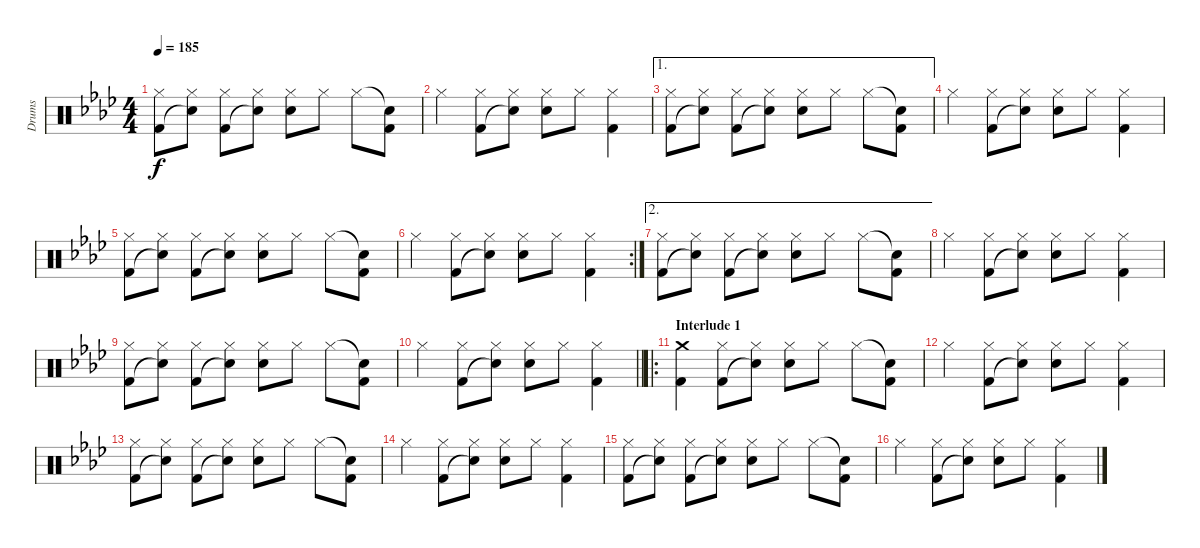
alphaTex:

\track ("Drums" "Drums") {instrument percussion}
\staff {score}
\articulation defaults
\ts (4 4)
\tempo 185
\clef neutral
\ks fminor
("Hi-Hat (closed)" "Kick (hit) 2").8{dy f} ("Hi-Hat (closed)" "Snare (hit)"{t}).8 ("Hi-Hat (closed)" "Kick (hit) 2").8 ("Hi-Hat (closed)" "Snare (hit)"{t}).8 ("Hi-Hat (closed)" "Electric Snare (hit)").8 "Hi-Hat (closed)".8 "Hi-Hat (closed)".8 ("Snare (hit)"{t} "Kick (hit) 2").8 |
"Hi-Hat (closed)".4 ("Hi-Hat (closed)" "Kick (hit) 2").8 ("Hi-Hat (closed)" "Snare (hit)"{t}).8 ("Hi-Hat (closed)" "Electric Snare (hit)").8 "Hi-Hat (closed)".8 ("Hi-Hat (closed)" "Kick (hit) 2").4 |
\ae 1
("Hi-Hat (closed)" "Kick (hit) 2").8 ("Hi-Hat (closed)" "Snare (hit)"{t}).8 ("Hi-Hat (closed)" "Kick (hit) 2").8 ("Hi-Hat (closed)" "Snare (hit)"{t}).8 ("Hi-Hat (closed)" "Electric Snare (hit)").8 "Hi-Hat (closed)".8 "Hi-Hat (closed)".8 ("Snare (hit)"{t} "Kick (hit) 2").8 |
"Hi-Hat (closed)".4 ("Hi-Hat (closed)" "Kick (hit) 2").8 ("Hi-Hat (closed)" "Snare (hit)"{t}).8 ("Hi-Hat (closed)" "Electric Snare (hit)").8 "Hi-Hat (closed)".8 ("Hi-Hat (closed)" "Kick (hit) 2").4 |
("Hi-Hat (closed)" "Kick (hit) 2").8 ("Hi-Hat (closed)" "Snare (hit)"{t}).8 ("Hi-Hat (closed)" "Kick (hit) 2").8 ("Hi-Hat (closed)" "Snare (hit)"{t}).8 ("Hi-Hat (closed)" "Electric Snare (hit)").8 "Hi-Hat (closed)".8 "Hi-Hat (closed)".8 ("Snare (hit)"{t} "Kick (hit) 2").8 |
\rc 2 "Hi-Hat (closed)".4
("Hi-Hat (closed)" "Kick (hit) 2").8 ("Hi-Hat (closed)" "Snare (hit)"{t}).8 ("Hi-Hat (closed)" "Electric Snare (hit)").8 "Hi-Hat (closed)".8 ("Hi-Hat (closed)" "Kick (hit) 2").4 |
\ae 2
("Hi-Hat (closed)" "Kick (hit) 2").8 ("Hi-Hat (closed)" "Snare (hit)"{t}).8 ("Hi-Hat (closed)" "Kick (hit) 2").8 ("Hi-Hat (closed)" "Snare (hit)"{t}).8 ("Hi-Hat (closed)" "Electric Snare (hit)").8 "Hi-Hat (closed)".8 "Hi-Hat (closed)".8 ("Snare (hit)"{t} "Kick (hit) 2").8 |
"Hi-Hat (closed)".4 ("Hi-Hat (closed)" "Kick (hit) 2").8 ("Hi-Hat (closed)" "Snare (hit)"{t}).8 ("Hi-Hat (closed)" "Electric Snare (hit)").8 "Hi-Hat (closed)".8 ("Hi-Hat (closed)" "Kick (hit) 2").4 |
("Hi-Hat (closed)" "Kick (hit) 2").8 ("Hi-Hat (closed)" "Snare (hit)"{t}).8 ("Hi-Hat (closed)" "Kick (hit) 2").8 ("Hi-Hat (closed)" "Snare (hit)"{t}).8 ("Hi-Hat (closed)" "Electric Snare (hit)").8 "Hi-Hat (closed)".8 "Hi-Hat (closed)".8 ("Snare (hit)"{t} "Kick (hit) 2").8 |
\barLineRight lightlight "Hi-Hat (closed)".4
("Hi-Hat (closed)" "Kick (hit) 2").8 ("Hi-Hat (closed)" "Snare (hit)"{t}).8 ("Hi-Hat (closed)" "Electric Snare (hit)").8 "Hi-Hat (closed)".8 ("Hi-Hat (closed)" "Kick (hit) 2").4 |
\ro
\section ("" "Interlude 1")
("Crash medium (hit)" "Kick (hit) 2").4 ("Hi-Hat (closed)" "Kick (hit) 2").8 ("Hi-Hat (closed)" "Snare (hit)"{t}).8 ("Hi-Hat (closed)" "Electric Snare (hit)").8 "Hi-Hat (closed)".8 "Hi-Hat (closed)".8 ("Snare (hit)"{t} "Kick (hit) 2").8 |
"Hi-Hat (closed)".4 ("Hi-Hat (closed)" "Kick (hit) 2").8 ("Hi-Hat (closed)" "Snare (hit)"{t}).8 ("Hi-Hat (closed)" "Electric Snare (hit)").8 "Hi-Hat (closed)".8 ("Hi-Hat (closed)" "Kick (hit) 2").4 |
("Hi-Hat (closed)" "Kick (hit) 2").8 ("Hi-Hat (closed)" "Snare (hit)"{t}).8 ("Hi-Hat (closed)" "Kick (hit) 2").8 ("Hi-Hat (closed)" "Snare (hit)"{t}).8 ("Hi-Hat (closed)" "Electric Snare (hit)").8 "Hi-Hat (closed)".8 "Hi-Hat (closed)".8 ("Snare (hit)"{t} "Kick (hit) 2").8 |
"Hi-Hat (closed)".4 ("Hi-Hat (closed)" "Kick (hit) 2").8 ("Hi-Hat (closed)" "Snare (hit)"{t}).8 ("Hi-Hat (closed)" "Electric Snare (hit)").8 "Hi-Hat (closed)".8 ("Hi-Hat (closed)" "Kick (hit) 2").4 |
("Hi-Hat (closed)" "Kick (hit) 2").8 ("Hi-Hat (closed)" "Snare (hit)"{t}).8 ("Hi-Hat (closed)" "Kick (hit) 2").8 ("Hi-Hat (closed)" "Snare (hit)"{t}).8 ("Hi-Hat (closed)" "Electric Snare (hit)").8 "Hi-Hat (closed)".8 "Hi-Hat (closed)".8 ("Snare (hit)"{t} "Kick (hit) 2").8 |
"Hi-Hat (closed)".4 ("Hi-Hat (closed)" "Kick (hit) 2").8 ("Hi-Hat (closed)" "Snare (hit)"{t}).8 ("Hi-Hat (closed)" "Electric Snare (hit)").8 "Hi-Hat (closed)".8 ("Hi-Hat (closed)" "Kick (hit) 2").4
